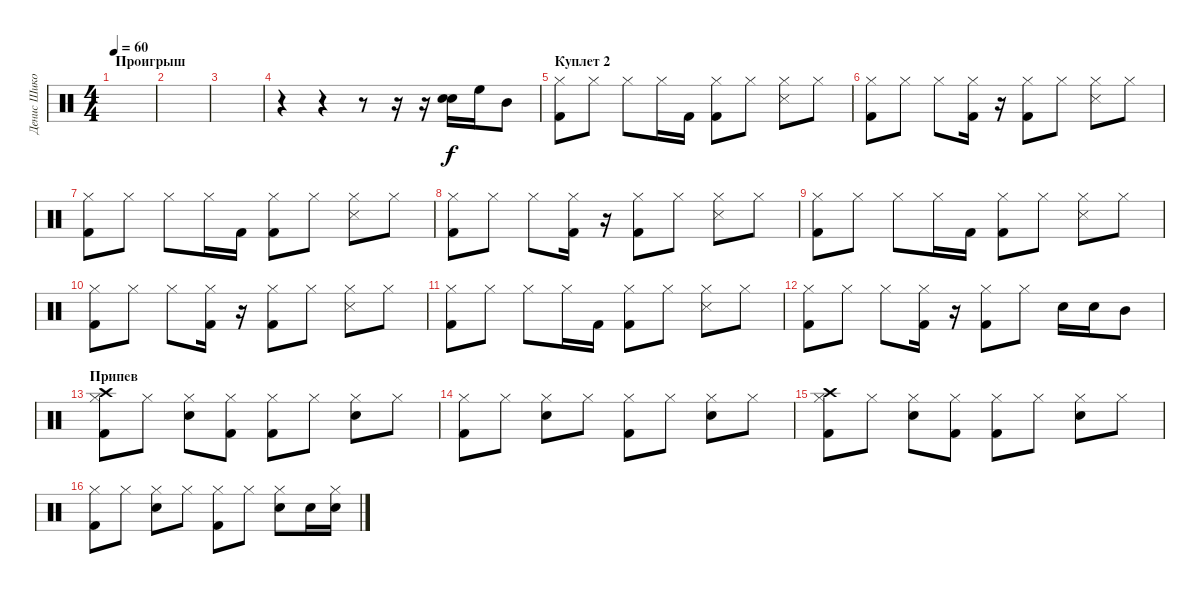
\track ("Денис Шиков" "Денис Шико") {instrument percussion}
\staff {score}
\articulation defaults
\ts (4 4)
\section ("" "Проигрыш")
\tempo 60
\clef neutral
\ks c
|
|
|
r.4 r.4 r.8 r.16 r.16 ("Snare (hit) 2" "Snare (hit) 2").16 "High Floor Tom (hit)".16 "Mid Tom (hit)".8 |
\section ("" "Куплет 2")
("Hi-Hat (closed)" "Kick (hit) 2").8 "Hi-Hat (closed)".8 "Hi-Hat (closed)".8 "Hi-Hat (closed)".16 "Kick (hit) 2".16 ("Hi-Hat (closed)" "Kick (hit) 2").8 "Hi-Hat (closed)".8 ("Hi-Hat (closed)" "Snare (side stick) 3").8 "Hi-Hat (closed)".8 |
("Hi-Hat (closed)" "Kick (hit) 2").8 "Hi-Hat (closed)".8 "Hi-Hat (closed)".8 ("Hi-Hat (closed)" "Kick (hit) 2").16 r.16 ("Hi-Hat (closed)" "Kick (hit) 2").8 "Hi-Hat (closed)".8 ("Hi-Hat (closed)" "Snare (side stick) 3").8 "Hi-Hat (closed)".8 |
("Hi-Hat (closed)" "Kick (hit) 2").8 "Hi-Hat (closed)".8 "Hi-Hat (closed)".8 "Hi-Hat (closed)".16 "Kick (hit) 2".16 ("Hi-Hat (closed)" "Kick (hit) 2").8 "Hi-Hat (closed)".8 ("Hi-Hat (closed)" "Snare (side stick) 3").8 "Hi-Hat (closed)".8 |
("Hi-Hat (closed)" "Kick (hit) 2").8 "Hi-Hat (closed)".8 "Hi-Hat (closed)".8 ("Hi-Hat (closed)" "Kick (hit) 2").16 r.16 ("Hi-Hat (closed)" "Kick (hit) 2").8 "Hi-Hat (closed)".8 ("Hi-Hat (closed)" "Snare (side stick) 3").8 "Hi-Hat (closed)".8 |
("Hi-Hat (closed)" "Kick (hit) 2").8 "Hi-Hat (closed)".8 "Hi-Hat (closed)".8 "Hi-Hat (closed)".16 "Kick (hit) 2".16 ("Hi-Hat (closed)" "Kick (hit) 2").8 "Hi-Hat (closed)".8 ("Hi-Hat (closed)" "Snare (side stick) 3").8 "Hi-Hat (closed)".8 |
("Hi-Hat (closed)" "Kick (hit) 2").8 "Hi-Hat (closed)".8 "Hi-Hat (closed)".8 ("Hi-Hat (closed)" "Kick (hit) 2").16 r.16 ("Hi-Hat (closed)" "Kick (hit) 2").8 "Hi-Hat (closed)".8 ("Hi-Hat (closed)" "Snare (side stick) 3").8 "Hi-Hat (closed)".8 |
("Hi-Hat (closed)" "Kick (hit) 2").8 "Hi-Hat (closed)".8 "Hi-Hat (closed)".8 "Hi-Hat (closed)".16 "Kick (hit) 2".16 ("Hi-Hat (closed)" "Kick (hit) 2").8 "Hi-Hat (closed)".8 ("Hi-Hat (closed)" "Snare (side stick) 3").8 "Hi-Hat (closed)".8 |
("Hi-Hat (closed)" "Kick (hit) 2").8 "Hi-Hat (closed)".8 "Hi-Hat (closed)".8 ("Hi-Hat (closed)" "Kick (hit) 2").16 r.16 ("Hi-Hat (closed)" "Kick (hit) 2").8 "Hi-Hat (closed)".8 "Snare (hit) 2".16 "Snare (hit) 2".16 "Mid Tom (hit)".8 |
\section ("" "Припев")
("Hi-Hat (closed)" "Crash high (hit)" "Kick (hit) 2").8 "Hi-Hat (closed)".8 ("Hi-Hat (closed)" "Snare (hit) 2").8 ("Hi-Hat (closed)" "Kick (hit) 2").8 ("Hi-Hat (closed)" "Kick (hit) 2").8 "Hi-Hat (closed)".8 ("Hi-Hat (closed)" "Snare (hit) 2").8 "Hi-Hat (closed)".8 |
("Hi-Hat (closed)" "Kick (hit) 2").8 "Hi-Hat (closed)".8 ("Hi-Hat (closed)" "Snare (hit) 2").8 "Hi-Hat (closed)".8 ("Hi-Hat (closed)" "Kick (hit) 2").8 "Hi-Hat (closed)".8 ("Hi-Hat (closed)" "Snare (hit) 2").8 "Hi-Hat (closed)".8 |
("Hi-Hat (closed)" "Crash high (hit)" "Kick (hit) 2").8 "Hi-Hat (closed)".8 ("Hi-Hat (closed)" "Snare (hit) 2").8 ("Hi-Hat (closed)" "Kick (hit) 2").8 ("Hi-Hat (closed)" "Kick (hit) 2").8 "Hi-Hat (closed)".8 ("Hi-Hat (closed)" "Snare (hit) 2").8 "Hi-Hat (closed)".8 |
("Hi-Hat (closed)" "Kick (hit) 2").8 "Hi-Hat (closed)".8 ("Hi-Hat (closed)" "Snare (hit) 2").8 "Hi-Hat (closed)".8 ("Hi-Hat (closed)" "Kick (hit) 2").8 "Hi-Hat (closed)".8 ("Hi-Hat (closed)" "Snare (hit) 2").8 "Snare (hit) 2".16 ("Hi-Hat (closed)" "Snare (hit) 2").16
